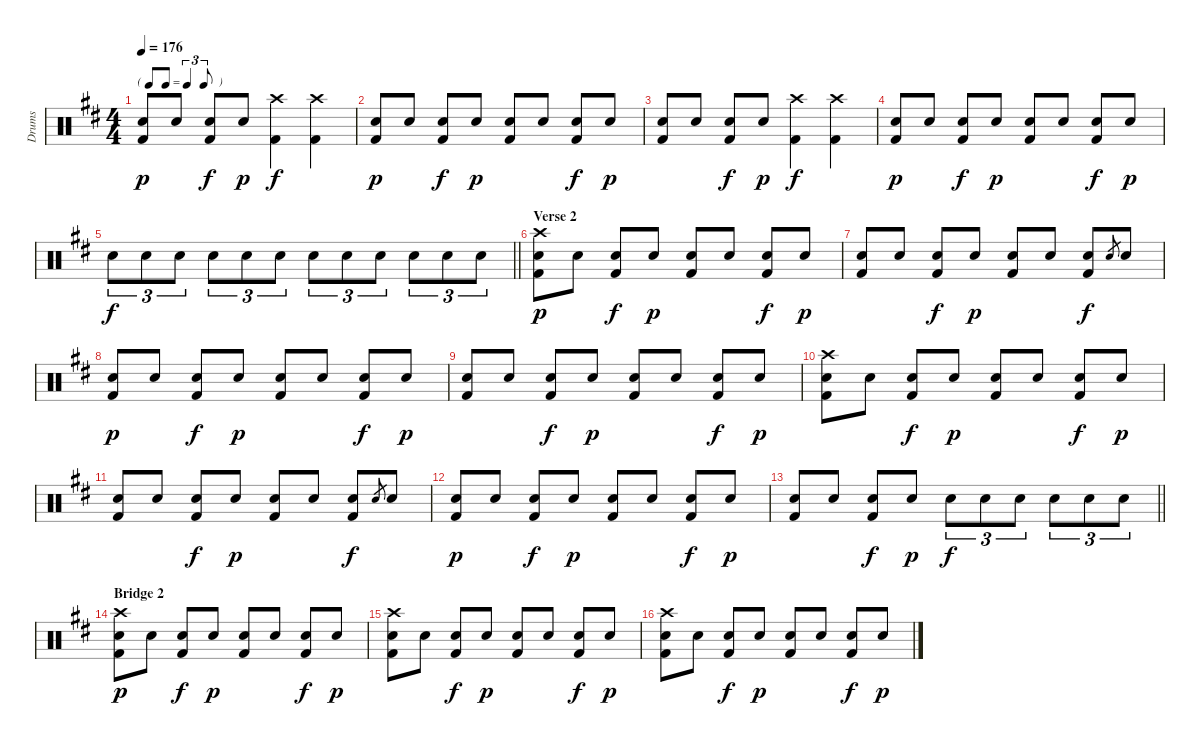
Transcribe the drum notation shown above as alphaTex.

\track ("Drums" "Drums") {instrument percussion}
\staff {score}
\articulation defaults
\ts (4 4)
\tf triplet8th
\tempo 176
\clef neutral
\ks d
("Snare (hit) 2" "Kick (hit) 2").8{dy p} "Snare (hit) 2".8 ("Snare (hit) 2" "Kick (hit) 2").8{dy f} "Snare (hit) 2".8{dy p} ("Crash high (hit)" "Kick (hit) 2").4{dy f} ("Crash high (hit)" "Kick (hit) 2").4 |
("Snare (hit) 2" "Kick (hit) 2").8{dy p} "Snare (hit) 2".8 ("Snare (hit) 2" "Kick (hit) 2").8{dy f} "Snare (hit) 2".8{dy p} ("Snare (hit) 2" "Kick (hit) 2").8 "Snare (hit) 2".8 ("Snare (hit) 2" "Kick (hit) 2").8{dy f} "Snare (hit) 2".8{dy p} |
("Snare (hit) 2" "Kick (hit) 2").8 "Snare (hit) 2".8 ("Snare (hit) 2" "Kick (hit) 2").8{dy f} "Snare (hit) 2".8{dy p} ("Crash high (hit)" "Kick (hit) 2").4{dy f} ("Crash high (hit)" "Kick (hit) 2").4 |
("Snare (hit) 2" "Kick (hit) 2").8{dy p} "Snare (hit) 2".8 ("Snare (hit) 2" "Kick (hit) 2").8{dy f} "Snare (hit) 2".8{dy p} ("Snare (hit) 2" "Kick (hit) 2").8 "Snare (hit) 2".8 ("Snare (hit) 2" "Kick (hit) 2").8{dy f} "Snare (hit) 2".8{dy p} |
\barLineRight lightlight "Snare (hit) 2".8{tu (3 2) dy f} "Snare (hit) 2".8{tu (3 2)} "Snare (hit) 2".8{tu (3 2)} "Snare (hit) 2".8{tu (3 2)} "Snare (hit) 2".8{tu (3 2)} "Snare (hit) 2".8{tu (3 2)} "Snare (hit) 2".8{tu (3 2)} "Snare (hit) 2".8{tu (3 2)} "Snare (hit) 2".8{tu (3 2)} "Snare (hit) 2".8{tu (3 2)} "Snare (hit) 2".8{tu (3 2)} "Snare (hit) 2".8{tu (3 2)}
|
\section ("" "Verse 2")
("Crash high (hit)" "Snare (hit) 2" "Kick (hit) 2").8{dy p} "Snare (hit) 2".8 ("Snare (hit) 2" "Kick (hit) 2").8{dy f} "Snare (hit) 2".8{dy p} ("Snare (hit) 2" "Kick (hit) 2").8 "Snare (hit) 2".8 ("Snare (hit) 2" "Kick (hit) 2").8{dy f} "Snare (hit) 2".8{dy p} |
("Snare (hit) 2" "Kick (hit) 2").8 "Snare (hit) 2".8 ("Snare (hit) 2" "Kick (hit) 2").8{dy f} "Snare (hit) 2".8{dy p} ("Snare (hit) 2" "Kick (hit) 2").8 "Snare (hit) 2".8 ("Snare (hit) 2" "Kick (hit) 2").8{dy f} "Snare (hit) 2".8{gr} "Snare (hit) 2".8 |
("Snare (hit) 2" "Kick (hit) 2").8{dy p} "Snare (hit) 2".8 ("Snare (hit) 2" "Kick (hit) 2").8{dy f} "Snare (hit) 2".8{dy p} ("Snare (hit) 2" "Kick (hit) 2").8 "Snare (hit) 2".8 ("Snare (hit) 2" "Kick (hit) 2").8{dy f} "Snare (hit) 2".8{dy p} |
("Snare (hit) 2" "Kick (hit) 2").8 "Snare (hit) 2".8 ("Snare (hit) 2" "Kick (hit) 2").8{dy f} "Snare (hit) 2".8{dy p} ("Snare (hit) 2" "Kick (hit) 2").8 "Snare (hit) 2".8 ("Snare (hit) 2" "Kick (hit) 2").8{dy f} "Snare (hit) 2".8{dy p} |
("Crash high (hit)" "Snare (hit) 2" "Kick (hit) 2").8 "Snare (hit) 2".8 ("Snare (hit) 2" "Kick (hit) 2").8{dy f} "Snare (hit) 2".8{dy p} ("Snare (hit) 2" "Kick (hit) 2").8 "Snare (hit) 2".8 ("Snare (hit) 2" "Kick (hit) 2").8{dy f} "Snare (hit) 2".8{dy p} |
("Snare (hit) 2" "Kick (hit) 2").8 "Snare (hit) 2".8 ("Snare (hit) 2" "Kick (hit) 2").8{dy f} "Snare (hit) 2".8{dy p} ("Snare (hit) 2" "Kick (hit) 2").8 "Snare (hit) 2".8 ("Snare (hit) 2" "Kick (hit) 2").8{dy f} "Snare (hit) 2".8{gr} "Snare (hit) 2".8 |
("Snare (hit) 2" "Kick (hit) 2").8{dy p} "Snare (hit) 2".8 ("Snare (hit) 2" "Kick (hit) 2").8{dy f} "Snare (hit) 2".8{dy p} ("Snare (hit) 2" "Kick (hit) 2").8 "Snare (hit) 2".8 ("Snare (hit) 2" "Kick (hit) 2").8{dy f} "Snare (hit) 2".8{dy p} |
\barLineRight lightlight
("Snare (hit) 2" "Kick (hit) 2").8 "Snare (hit) 2".8 ("Snare (hit) 2" "Kick (hit) 2").8{dy f} "Snare (hit) 2".8{dy p} "Snare (hit) 2".8{tu (3 2) dy f} "Snare (hit) 2".8{tu (3 2)} "Snare (hit) 2".8{tu (3 2)} "Snare (hit) 2".8{tu (3 2)} "Snare (hit) 2".8{tu (3 2)} "Snare (hit) 2".8{tu (3 2)} |
\section ("" "Bridge 2")
("Crash high (hit)" "Snare (hit) 2" "Kick (hit) 2").8{dy p} "Snare (hit) 2".8 ("Snare (hit) 2" "Kick (hit) 2").8{dy f} "Snare (hit) 2".8{dy p} ("Snare (hit) 2" "Kick (hit) 2").8 "Snare (hit) 2".8 ("Snare (hit) 2" "Kick (hit) 2").8{dy f} "Snare (hit) 2".8{dy p} |
("Crash high (hit)" "Snare (hit) 2" "Kick (hit) 2").8 "Snare (hit) 2".8 ("Snare (hit) 2" "Kick (hit) 2").8{dy f} "Snare (hit) 2".8{dy p} ("Snare (hit) 2" "Kick (hit) 2").8 "Snare (hit) 2".8 ("Snare (hit) 2" "Kick (hit) 2").8{dy f} "Snare (hit) 2".8{dy p} |
("Crash high (hit)" "Snare (hit) 2" "Kick (hit) 2").8 "Snare (hit) 2".8 ("Snare (hit) 2" "Kick (hit) 2").8{dy f} "Snare (hit) 2".8{dy p} ("Snare (hit) 2" "Kick (hit) 2").8 "Snare (hit) 2".8 ("Snare (hit) 2" "Kick (hit) 2").8{dy f} "Snare (hit) 2".8{dy p}
